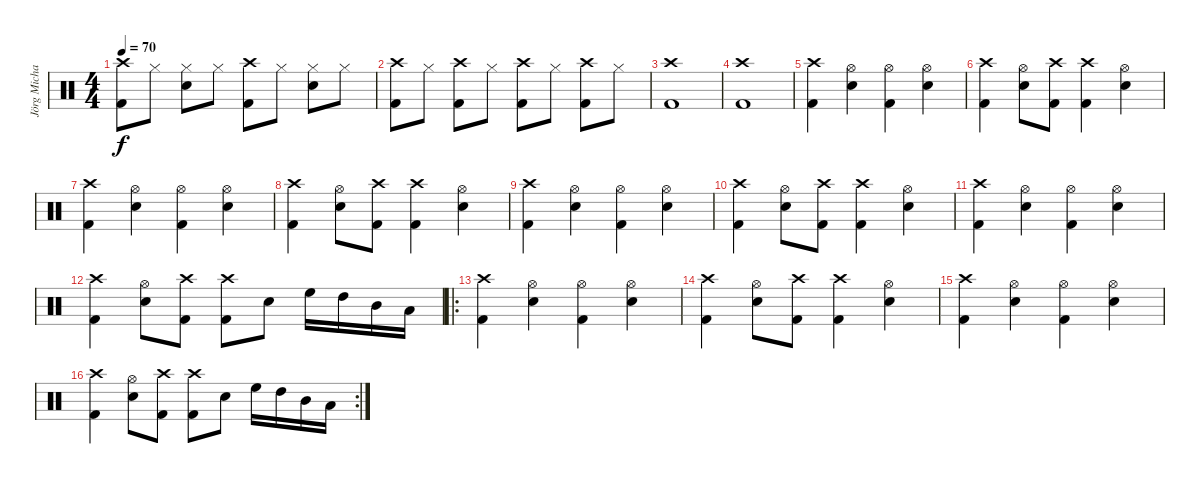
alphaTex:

\track ("Jörg Michael (Drums)" "Jörg Micha") {instrument percussion}
\staff {score}
\articulation defaults
\ts (4 4)
\tempo 70
\clef neutral
\ks c
("Crash high (hit)" "Kick (hit) 2").8{dy f} "Hi-Hat (closed)".8 ("Hi-Hat (closed)" "Snare (hit) 2").8 "Hi-Hat (closed)".8 ("Crash high (hit)" "Kick (hit) 2").8 "Hi-Hat (closed)".8 ("Hi-Hat (closed)" "Snare (hit) 2").8 "Hi-Hat (closed)".8 |
("Crash high (hit)" "Kick (hit) 2").8 "Hi-Hat (closed)".8 ("Crash high (hit)" "Kick (hit) 2").8 "Hi-Hat (closed)".8 ("Crash high (hit)" "Kick (hit) 2").8 "Hi-Hat (closed)".8 ("Crash high (hit)" "Kick (hit) 2").8 "Hi-Hat (closed)".8 |
("Crash high (hit)" "Kick (hit) 2").1 |
("Crash high (hit)" "Kick (hit) 2").1 |
("Crash high (hit)" "Kick (hit) 2").4 ("Hi-Hat (open)" "Snare (hit) 2").4 ("Hi-Hat (open)" "Kick (hit) 2").4 ("Hi-Hat (open)" "Snare (hit) 2").4 |
("Crash high (hit)" "Kick (hit) 2").4 ("Hi-Hat (open)" "Snare (hit) 2").8 ("Crash high (hit)" "Kick (hit) 2").8 ("Crash high (hit)" "Kick (hit) 2").4 ("Hi-Hat (open)" "Snare (hit) 2").4 |
("Crash high (hit)" "Kick (hit) 2").4 ("Hi-Hat (open)" "Snare (hit) 2").4 ("Hi-Hat (open)" "Kick (hit) 2").4 ("Hi-Hat (open)" "Snare (hit) 2").4 |
("Crash high (hit)" "Kick (hit) 2").4 ("Hi-Hat (open)" "Snare (hit) 2").8 ("Crash high (hit)" "Kick (hit) 2").8 ("Crash high (hit)" "Kick (hit) 2").4 ("Hi-Hat (open)" "Snare (hit) 2").4 |
("Crash high (hit)" "Kick (hit) 2").4 ("Hi-Hat (open)" "Snare (hit) 2").4 ("Hi-Hat (open)" "Kick (hit) 2").4 ("Hi-Hat (open)" "Snare (hit) 2").4 |
("Crash high (hit)" "Kick (hit) 2").4 ("Hi-Hat (open)" "Snare (hit) 2").8 ("Crash high (hit)" "Kick (hit) 2").8 ("Crash high (hit)" "Kick (hit) 2").4 ("Hi-Hat (open)" "Snare (hit) 2").4 |
("Crash high (hit)" "Kick (hit) 2").4 ("Hi-Hat (open)" "Snare (hit) 2").4 ("Hi-Hat (open)" "Kick (hit) 2").4 ("Hi-Hat (open)" "Snare (hit) 2").4 |
("Crash high (hit)" "Kick (hit) 2").4 ("Hi-Hat (open)" "Snare (hit) 2").8 ("Crash high (hit)" "Kick (hit) 2").8 ("Crash high (hit)" "Kick (hit) 2").8 "Snare (hit) 2".8 "High Floor Tom (hit)".16 "High Tom (hit)".16 "Mid Tom (hit)".16 "Low Tom (hit)".16 |
\ro
("Crash high (hit)" "Kick (hit) 2").4 ("Hi-Hat (open)" "Snare (hit) 2").4 ("Hi-Hat (open)" "Kick (hit) 2").4 ("Hi-Hat (open)" "Snare (hit) 2").4 |
("Crash high (hit)" "Kick (hit) 2").4 ("Hi-Hat (open)" "Snare (hit) 2").8 ("Crash high (hit)" "Kick (hit) 2").8 ("Crash high (hit)" "Kick (hit) 2").4 ("Hi-Hat (open)" "Snare (hit) 2").4 |
("Crash high (hit)" "Kick (hit) 2").4 ("Hi-Hat (open)" "Snare (hit) 2").4 ("Hi-Hat (open)" "Kick (hit) 2").4 ("Hi-Hat (open)" "Snare (hit) 2").4 |
\rc 2
("Crash high (hit)" "Kick (hit) 2").4 ("Hi-Hat (open)" "Snare (hit) 2").8 ("Crash high (hit)" "Kick (hit) 2").8 ("Crash high (hit)" "Kick (hit) 2").8 "Snare (hit) 2".8 "High Floor Tom (hit)".16 "High Tom (hit)".16 "Mid Tom (hit)".16 "Low Tom (hit)".16
